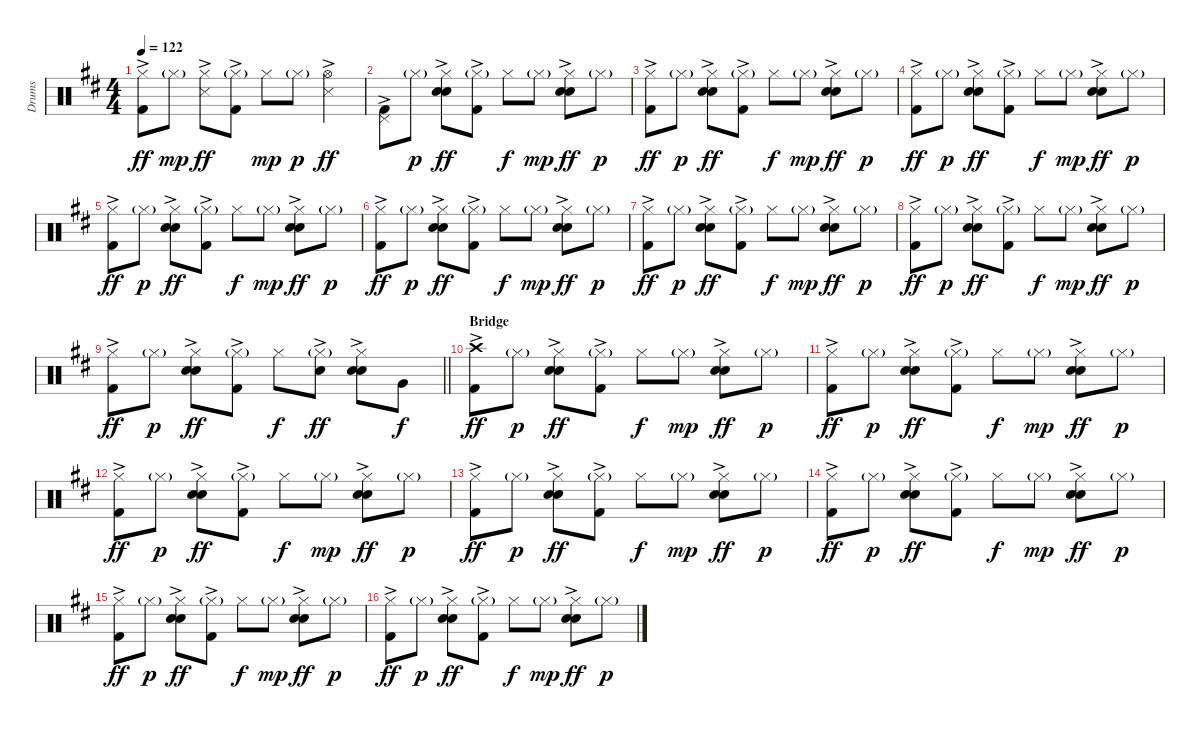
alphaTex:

\track ("Drums" "Drums") {instrument percussion}
\staff {score}
\articulation defaults
\ts (4 4)
\tempo 122
\clef neutral
\ks d
("Hi-Hat (closed)" "Kick (hit) 2"{ac}).8{dy ff} "Hi-Hat (closed)"{g}.8{dy mp} ("Hi-Hat (closed)" "Snare (side stick) 3"{ac}).8{dy ff} ("Hi-Hat (closed)"{g} "Kick (hit) 2"{ac}).8 "Hi-Hat (closed)".8{dy mp} "Hi-Hat (closed)"{g}.8{dy p} ("Hi-Hat (open)" "Snare (side stick) 3"{ac}).4{dy ff} |
("Pedal Hi-Hat (hit)" "Kick (hit) 2"{ac}).8 "Hi-Hat (closed)"{g}.8{dy p} ("Hi-Hat (closed)" "Electric Snare (hit)"{ac} "Snare (hit) 2").8{dy ff} ("Hi-Hat (closed)"{g} "Kick (hit) 2"{ac}).8 "Hi-Hat (closed)".8{dy f} "Hi-Hat (closed)"{g}.8{dy mp} ("Hi-Hat (closed)" "Electric Snare (hit)"{ac} "Snare (hit) 2").8{dy ff} "Hi-Hat (closed)"{g}.8{dy p} |
("Hi-Hat (closed)" "Kick (hit) 2"{ac}).8{dy ff} "Hi-Hat (closed)"{g}.8{dy p} ("Hi-Hat (closed)" "Electric Snare (hit)"{ac} "Snare (hit) 2").8{dy ff} ("Hi-Hat (closed)"{g} "Kick (hit) 2"{ac}).8 "Hi-Hat (closed)".8{dy f} "Hi-Hat (closed)"{g}.8{dy mp} ("Hi-Hat (closed)" "Electric Snare (hit)"{ac} "Snare (hit) 2").8{dy ff} "Hi-Hat (closed)"{g}.8{dy p} |
("Hi-Hat (closed)" "Kick (hit) 2"{ac}).8{dy ff} "Hi-Hat (closed)"{g}.8{dy p} ("Hi-Hat (closed)" "Electric Snare (hit)"{ac} "Snare (hit) 2").8{dy ff} ("Hi-Hat (closed)"{g} "Kick (hit) 2"{ac}).8 "Hi-Hat (closed)".8{dy f} "Hi-Hat (closed)"{g}.8{dy mp} ("Hi-Hat (closed)" "Electric Snare (hit)"{ac} "Snare (hit) 2").8{dy ff} "Hi-Hat (closed)"{g}.8{dy p} |
("Hi-Hat (closed)" "Kick (hit) 2"{ac}).8{dy ff} "Hi-Hat (closed)"{g}.8{dy p} ("Hi-Hat (closed)" "Electric Snare (hit)"{ac} "Snare (hit) 2").8{dy ff} ("Hi-Hat (closed)"{g} "Kick (hit) 2"{ac}).8 "Hi-Hat (closed)".8{dy f} "Hi-Hat (closed)"{g}.8{dy mp} ("Hi-Hat (closed)" "Electric Snare (hit)"{ac} "Snare (hit) 2").8{dy ff} "Hi-Hat (closed)"{g}.8{dy p} |
("Hi-Hat (closed)" "Kick (hit) 2"{ac}).8{dy ff} "Hi-Hat (closed)"{g}.8{dy p} ("Hi-Hat (closed)" "Electric Snare (hit)"{ac} "Snare (hit) 2").8{dy ff} ("Hi-Hat (closed)"{g} "Kick (hit) 2"{ac}).8 "Hi-Hat (closed)".8{dy f} "Hi-Hat (closed)"{g}.8{dy mp} ("Hi-Hat (closed)" "Electric Snare (hit)"{ac} "Snare (hit) 2").8{dy ff} "Hi-Hat (closed)"{g}.8{dy p} |
("Hi-Hat (closed)" "Kick (hit) 2"{ac}).8{dy ff} "Hi-Hat (closed)"{g}.8{dy p} ("Hi-Hat (closed)" "Electric Snare (hit)"{ac} "Snare (hit) 2").8{dy ff} ("Hi-Hat (closed)"{g} "Kick (hit) 2"{ac}).8 "Hi-Hat (closed)".8{dy f} "Hi-Hat (closed)"{g}.8{dy mp} ("Hi-Hat (closed)" "Electric Snare (hit)"{ac} "Snare (hit) 2").8{dy ff} "Hi-Hat (closed)"{g}.8{dy p} |
("Hi-Hat (closed)" "Kick (hit) 2"{ac}).8{dy ff} "Hi-Hat (closed)"{g}.8{dy p} ("Hi-Hat (closed)" "Electric Snare (hit)"{ac} "Snare (hit) 2").8{dy ff} ("Hi-Hat (closed)"{g} "Kick (hit) 2"{ac}).8 "Hi-Hat (closed)".8{dy f} "Hi-Hat (closed)"{g}.8{dy mp} ("Hi-Hat (closed)" "Electric Snare (hit)"{ac} "Snare (hit) 2").8{dy ff} "Hi-Hat (closed)"{g}.8{dy p} |
\barLineRight lightlight
("Hi-Hat (closed)" "Kick (hit) 2"{ac}).8{dy ff} "Hi-Hat (closed)"{g}.8{dy p} ("Hi-Hat (closed)" "Electric Snare (hit)"{ac} "Snare (hit) 2").8{dy ff} ("Hi-Hat (closed)"{g} "Kick (hit) 2"{ac}).8 "Hi-Hat (closed)".8{dy f} ("Hi-Hat (closed)"{g} "Electric Snare (hit)"{ac}).8{dy ff} ("Hi-Hat (closed)" "Electric Snare (hit)"{ac} "Snare (hit) 2").8 "Very Low Tom (hit)".8{dy f} |
\section ("" "Bridge")
("Crash high (hit)" "Kick (hit) 2"{ac}).8{dy ff} "Hi-Hat (closed)"{g}.8{dy p} ("Hi-Hat (closed)" "Electric Snare (hit)"{ac} "Snare (hit) 2").8{dy ff} ("Hi-Hat (closed)"{g} "Kick (hit) 2"{ac}).8 "Hi-Hat (closed)".8{dy f} "Hi-Hat (closed)"{g}.8{dy mp} ("Hi-Hat (closed)" "Electric Snare (hit)"{ac} "Snare (hit) 2").8{dy ff} "Hi-Hat (closed)"{g}.8{dy p} |
("Hi-Hat (closed)" "Kick (hit) 2"{ac}).8{dy ff} "Hi-Hat (closed)"{g}.8{dy p} ("Hi-Hat (closed)" "Electric Snare (hit)"{ac} "Snare (hit) 2").8{dy ff} ("Hi-Hat (closed)"{g} "Kick (hit) 2"{ac}).8 "Hi-Hat (closed)".8{dy f} "Hi-Hat (closed)"{g}.8{dy mp} ("Hi-Hat (closed)" "Electric Snare (hit)"{ac} "Snare (hit) 2").8{dy ff} "Hi-Hat (closed)"{g}.8{dy p} |
("Hi-Hat (closed)" "Kick (hit) 2"{ac}).8{dy ff} "Hi-Hat (closed)"{g}.8{dy p} ("Hi-Hat (closed)" "Electric Snare (hit)"{ac} "Snare (hit) 2").8{dy ff} ("Hi-Hat (closed)"{g} "Kick (hit) 2"{ac}).8 "Hi-Hat (closed)".8{dy f} "Hi-Hat (closed)"{g}.8{dy mp} ("Hi-Hat (closed)" "Electric Snare (hit)"{ac} "Snare (hit) 2").8{dy ff} "Hi-Hat (closed)"{g}.8{dy p} |
("Hi-Hat (closed)" "Kick (hit) 2"{ac}).8{dy ff} "Hi-Hat (closed)"{g}.8{dy p} ("Hi-Hat (closed)" "Electric Snare (hit)"{ac} "Snare (hit) 2").8{dy ff} ("Hi-Hat (closed)"{g} "Kick (hit) 2"{ac}).8 "Hi-Hat (closed)".8{dy f} "Hi-Hat (closed)"{g}.8{dy mp} ("Hi-Hat (closed)" "Electric Snare (hit)"{ac} "Snare (hit) 2").8{dy ff} "Hi-Hat (closed)"{g}.8{dy p} |
("Hi-Hat (closed)" "Kick (hit) 2"{ac}).8{dy ff} "Hi-Hat (closed)"{g}.8{dy p} ("Hi-Hat (closed)" "Electric Snare (hit)"{ac} "Snare (hit) 2").8{dy ff} ("Hi-Hat (closed)"{g} "Kick (hit) 2"{ac}).8 "Hi-Hat (closed)".8{dy f} "Hi-Hat (closed)"{g}.8{dy mp} ("Hi-Hat (closed)" "Electric Snare (hit)"{ac} "Snare (hit) 2").8{dy ff} "Hi-Hat (closed)"{g}.8{dy p} |
("Hi-Hat (closed)" "Kick (hit) 2"{ac}).8{dy ff} "Hi-Hat (closed)"{g}.8{dy p} ("Hi-Hat (closed)" "Electric Snare (hit)"{ac} "Snare (hit) 2").8{dy ff} ("Hi-Hat (closed)"{g} "Kick (hit) 2"{ac}).8 "Hi-Hat (closed)".8{dy f} "Hi-Hat (closed)"{g}.8{dy mp} ("Hi-Hat (closed)" "Electric Snare (hit)"{ac} "Snare (hit) 2").8{dy ff} "Hi-Hat (closed)"{g}.8{dy p} |
("Hi-Hat (closed)" "Kick (hit) 2"{ac}).8{dy ff} "Hi-Hat (closed)"{g}.8{dy p} ("Hi-Hat (closed)" "Electric Snare (hit)"{ac} "Snare (hit) 2").8{dy ff} ("Hi-Hat (closed)"{g} "Kick (hit) 2"{ac}).8 "Hi-Hat (closed)".8{dy f} "Hi-Hat (closed)"{g}.8{dy mp} ("Hi-Hat (closed)" "Electric Snare (hit)"{ac} "Snare (hit) 2").8{dy ff} "Hi-Hat (closed)"{g}.8{dy p}
